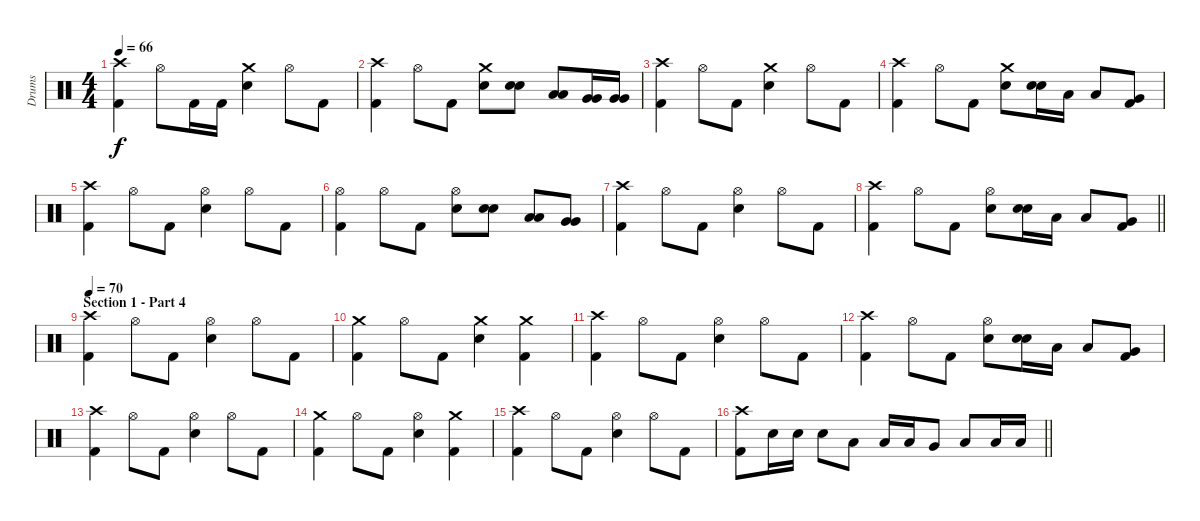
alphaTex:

\track ("Drums" "Drums") {instrument percussion}
\staff {score}
\articulation defaults
\ts (4 4)
\tempo 66
\clef neutral
\ks c
("Crash high (hit)" "Kick (hit) 2").4{dy f} "Hi-Hat (open)".8 "Kick (hit) 2".16 "Kick (hit) 2".16 ("Crash medium (hit)" "Electric Snare (hit)").4 "Hi-Hat (open)".8 "Kick (hit) 2".8 |
("Crash high (hit)" "Kick (hit) 2").4 "Hi-Hat (open)".8 "Kick (hit) 2".8 ("Crash medium (hit)" "Electric Snare (hit)").8 ("Electric Snare (hit)" "Electric Snare (hit)").8{bu 60} ("Low Tom (hit)" "Low Tom (hit)").8{bu 60} ("Very Low Tom (hit)" "Very Low Tom (hit)").16{bu 60} ("Very Low Tom (hit)" "Very Low Tom (hit)").16{bu 60} |
("Crash high (hit)" "Kick (hit) 2").4 "Hi-Hat (open)".8 "Kick (hit) 2".8 ("Crash medium (hit)" "Electric Snare (hit)").4 "Hi-Hat (open)".8 "Kick (hit) 2".8 |
("Crash high (hit)" "Kick (hit) 2").4 "Hi-Hat (open)".8 "Kick (hit) 2".8 ("Crash medium (hit)" "Electric Snare (hit)").8 ("Electric Snare (hit)" "Electric Snare (hit)").16{bu 60} "Low Tom (hit)".16 "Low Tom (hit)".8 ("Very Low Tom (hit)" "Kick (hit) 2").8 |
("Crash high (hit)" "Kick (hit) 2").4 "Hi-Hat (open)".8 "Kick (hit) 2".8 ("Hi-Hat (open)" "Electric Snare (hit)").4 "Hi-Hat (open)".8 "Kick (hit) 2".8 |
("Hi-Hat (open)" "Kick (hit) 2").4 "Hi-Hat (open)".8 "Kick (hit) 2".8 ("Hi-Hat (open)" "Electric Snare (hit)").8 ("Electric Snare (hit)" "Electric Snare (hit)").8{bu 60} ("Low Tom (hit)" "Low Tom (hit)").8{bu 60} ("Very Low Tom (hit)" "Very Low Tom (hit)").8{bu 60} |
("Crash high (hit)" "Kick (hit) 2").4 "Hi-Hat (open)".8 "Kick (hit) 2".8 ("Hi-Hat (open)" "Electric Snare (hit)").4 "Hi-Hat (open)".8 "Kick (hit) 2".8 |
\barLineRight lightlight
("Crash high (hit)" "Kick (hit) 2").4 "Hi-Hat (open)".8 "Kick (hit) 2".8 ("Hi-Hat (open)" "Electric Snare (hit)").8 ("Electric Snare (hit)" "Electric Snare (hit)").16{bu 60} "Low Tom (hit)".16 "Low Tom (hit)".8 ("Very Low Tom (hit)" "Kick (hit) 2").8 |
\section ("" "Section 1 - Part 4")
\tempo 70
("Crash high (hit)" "Kick (hit) 2").4 "Hi-Hat (open)".8 "Kick (hit) 2".8 ("Hi-Hat (open)" "Electric Snare (hit)").4 "Hi-Hat (open)".8 "Kick (hit) 2".8 |
("Crash medium (hit)" "Kick (hit) 2").4 "Hi-Hat (open)".8 "Kick (hit) 2".8 ("Crash medium (hit)" "Electric Snare (hit)").4 ("Crash medium (hit)" "Kick (hit) 2").4 |
("Crash high (hit)" "Kick (hit) 2").4 "Hi-Hat (open)".8 "Kick (hit) 2".8 ("Hi-Hat (open)" "Electric Snare (hit)").4 "Hi-Hat (open)".8 "Kick (hit) 2".8 |
("Crash high (hit)" "Kick (hit) 2").4 "Hi-Hat (open)".8 "Kick (hit) 2".8 ("Hi-Hat (open)" "Electric Snare (hit)").8 ("Electric Snare (hit)" "Electric Snare (hit)").16{bu 60} "Low Tom (hit)".16 "Low Tom (hit)".8 ("Very Low Tom (hit)" "Kick (hit) 2").8 |
("Crash high (hit)" "Kick (hit) 2").4 "Hi-Hat (open)".8 "Kick (hit) 2".8 ("Hi-Hat (open)" "Electric Snare (hit)").4 "Hi-Hat (open)".8 "Kick (hit) 2".8 |
("Crash medium (hit)" "Kick (hit) 2").4 "Hi-Hat (open)".8 "Kick (hit) 2".8 ("Hi-Hat (open)" "Electric Snare (hit)").4 ("Crash medium (hit)" "Kick (hit) 2").4 |
("Crash high (hit)" "Kick (hit) 2").4 "Hi-Hat (open)".8 "Kick (hit) 2".8 ("Hi-Hat (open)" "Electric Snare (hit)").4 "Hi-Hat (open)".8 "Kick (hit) 2".8 |
\barLineRight lightlight
("Crash high (hit)" "Kick (hit) 2").8 "Electric Snare (hit)".16 "Electric Snare (hit)".16 "Electric Snare (hit)".8 "Low Tom (hit)".8 "Low Tom (hit)".16 "Low Tom (hit)".16 "Very Low Tom (hit)".8 "Low Floor Tom (hit)".8 "Low Floor Tom (hit)".16 "Low Floor Tom (hit)".16
